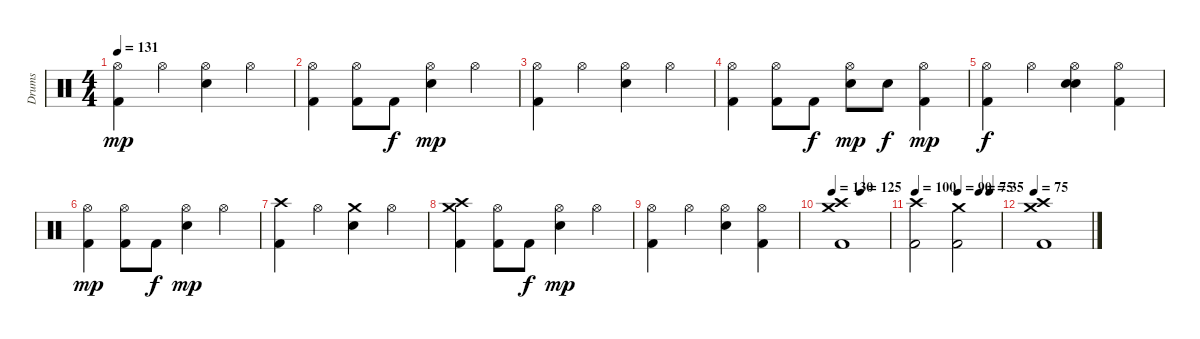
\track ("Drums" "Drums") {instrument percussion}
\staff {score}
\articulation defaults
\ts (4 4)
\tempo 131
\clef neutral
\ks c
("Hi-Hat (open)" "Kick (hit) 2").4{dy mp} "Hi-Hat (open)".4 ("Hi-Hat (open)" "Electric Snare (hit)").4 "Hi-Hat (open)".4 |
("Hi-Hat (open)" "Kick (hit) 2").4 ("Hi-Hat (open)" "Kick (hit) 2").8 "Kick (hit) 2".8{dy f} ("Hi-Hat (open)" "Electric Snare (hit)").4{dy mp} "Hi-Hat (open)".4 |
("Hi-Hat (open)" "Kick (hit) 2").4 "Hi-Hat (open)".4 ("Hi-Hat (open)" "Electric Snare (hit)").4 "Hi-Hat (open)".4 |
("Hi-Hat (open)" "Kick (hit) 2").4 ("Hi-Hat (open)" "Kick (hit) 2").8 "Kick (hit) 2".8{dy f} ("Hi-Hat (open)" "Electric Snare (hit)").8{dy mp} "Electric Snare (hit)".8{dy f} ("Hi-Hat (open)" "Kick (hit) 2").4{dy mp} |
("Hi-Hat (open)" "Kick (hit) 2").4{dy f} "Hi-Hat (open)".4 ("Hi-Hat (open)" "Electric Snare (hit)" "Electric Snare (hit)").4 ("Hi-Hat (open)" "Kick (hit) 2").4 |
("Hi-Hat (open)" "Kick (hit) 2").4{dy mp} ("Hi-Hat (open)" "Kick (hit) 2").8 "Kick (hit) 2".8{dy f} ("Hi-Hat (open)" "Electric Snare (hit)").4{dy mp} "Hi-Hat (open)".4 |
("Crash high (hit)" "Kick (hit) 2").4 "Hi-Hat (open)".4 ("Crash medium (hit)" "Electric Snare (hit)").4 "Hi-Hat (open)".4 |
("Crash high (hit)" "Crash medium (hit)" "Kick (hit) 2").4 ("Hi-Hat (open)" "Kick (hit) 2").8 "Kick (hit) 2".8{dy f} ("Hi-Hat (open)" "Electric Snare (hit)").4{dy mp} "Hi-Hat (open)".4 |
("Hi-Hat (open)" "Kick (hit) 2").4 "Hi-Hat (open)".4 ("Hi-Hat (open)" "Electric Snare (hit)").4 ("Hi-Hat (open)" "Kick (hit) 2").4 |
\tempo 130
\tempo (125 0.5)
("Crash high (hit)" "Crash medium (hit)" "Kick (hit) 2").1 |
\tempo 100
\tempo (90 0.5)
\tempo (75 0.75)
\tempo (35 0.875)
("Crash high (hit)" "Kick (hit) 2").2 ("Crash medium (hit)" "Kick (hit) 2").2 |
\tempo 75
("Crash high (hit)" "Crash medium (hit)" "Kick (hit) 2").1
